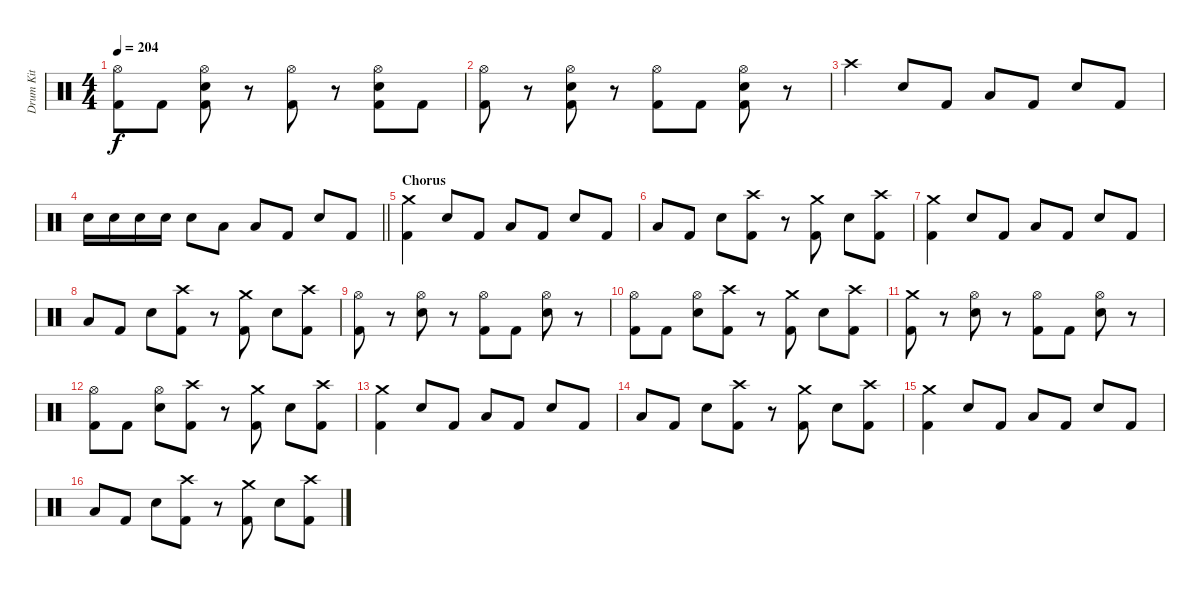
\track ("Drum Kit" "Drum Kit") {instrument percussion}
\staff {score}
\articulation defaults
\ts (4 4)
\tempo 204
\clef neutral
\ks c
("Hi-Hat (open)" "Kick (hit) 2").8{dy f} "Kick (hit) 2".8 ("Hi-Hat (open)" "Snare (hit) 2" "Kick (hit) 2").8 r.8 ("Hi-Hat (open)" "Kick (hit) 2").8 r.8 ("Hi-Hat (open)" "Snare (hit) 2" "Kick (hit) 2").8 "Kick (hit) 2".8 |
("Hi-Hat (open)" "Kick (hit) 2").8 r.8 ("Hi-Hat (open)" "Snare (hit) 2" "Kick (hit) 2").8 r.8 ("Hi-Hat (open)" "Kick (hit) 2").8 "Kick (hit) 2".8 ("Hi-Hat (open)" "Snare (hit) 2" "Kick (hit) 2").8 r.8 |
"Crash high (hit)".4 "Snare (hit) 2".8 "Kick (hit) 2".8 "Low Floor Tom (hit)".8 "Kick (hit) 2".8 "Snare (hit) 2".8 "Kick (hit) 2".8 |
\barLineRight lightlight "Snare (hit) 2".16 "Snare (hit) 2".16 "Snare (hit) 2".16 "Snare (hit) 2".16 "Snare (hit) 2".8 "Low Tom (hit)".8 "Low Floor Tom (hit)".8 "Kick (hit) 2".8 "Snare (hit) 2".8 "Kick (hit) 2".8
|
\section ("" "Chorus")
("Crash medium (hit)" "Kick (hit) 2").4 "Snare (hit) 2".8 "Kick (hit) 2".8 "Low Floor Tom (hit)".8 "Kick (hit) 2".8 "Snare (hit) 2".8 "Kick (hit) 2".8 |
"Low Floor Tom (hit)".8 "Kick (hit) 2".8 "Snare (hit) 2".8 ("Crash high (hit)" "Kick (hit) 2").8 r.8 ("Crash medium (hit)" "Kick (hit) 2").8 "Snare (hit) 2".8 ("Crash high (hit)" "Kick (hit) 2").8 |
("Crash medium (hit)" "Kick (hit) 2").4 "Snare (hit) 2".8 "Kick (hit) 2".8 "Low Floor Tom (hit)".8 "Kick (hit) 2".8 "Snare (hit) 2".8 "Kick (hit) 2".8 |
"Low Floor Tom (hit)".8 "Kick (hit) 2".8 "Snare (hit) 2".8 ("Crash high (hit)" "Kick (hit) 2").8 r.8 ("Crash medium (hit)" "Kick (hit) 2").8 "Snare (hit) 2".8 ("Crash high (hit)" "Kick (hit) 2").8 |
("Hi-Hat (open)" "Kick (hit) 2").8 r.8 ("Hi-Hat (open)" "Snare (hit) 2").8 r.8 ("Hi-Hat (open)" "Kick (hit) 2").8 "Kick (hit) 2".8 ("Hi-Hat (open)" "Snare (hit) 2").8 r.8 |
("Hi-Hat (open)" "Kick (hit) 2").8 "Kick (hit) 2".8 ("Hi-Hat (open)" "Snare (hit) 2").8 ("Crash high (hit)" "Kick (hit) 2").8 r.8 ("Crash medium (hit)" "Kick (hit) 2").8 "Snare (hit) 2".8 ("Crash high (hit)" "Kick (hit) 2").8 |
("Crash medium (hit)" "Kick (hit) 2").8 r.8 ("Hi-Hat (open)" "Snare (hit) 2").8 r.8 ("Hi-Hat (open)" "Kick (hit) 2").8 "Kick (hit) 2".8 ("Hi-Hat (open)" "Snare (hit) 2").8 r.8 |
("Hi-Hat (open)" "Kick (hit) 2").8 "Kick (hit) 2".8 ("Hi-Hat (open)" "Snare (hit) 2").8 ("Crash high (hit)" "Kick (hit) 2").8 r.8 ("Crash medium (hit)" "Kick (hit) 2").8 "Snare (hit) 2".8 ("Crash high (hit)" "Kick (hit) 2").8 |
("Crash medium (hit)" "Kick (hit) 2").4 "Snare (hit) 2".8 "Kick (hit) 2".8 "Low Floor Tom (hit)".8 "Kick (hit) 2".8 "Snare (hit) 2".8 "Kick (hit) 2".8 |
"Low Floor Tom (hit)".8 "Kick (hit) 2".8 "Snare (hit) 2".8 ("Crash high (hit)" "Kick (hit) 2").8 r.8 ("Crash medium (hit)" "Kick (hit) 2").8 "Snare (hit) 2".8 ("Crash high (hit)" "Kick (hit) 2").8 |
("Crash medium (hit)" "Kick (hit) 2").4 "Snare (hit) 2".8 "Kick (hit) 2".8 "Low Floor Tom (hit)".8 "Kick (hit) 2".8 "Snare (hit) 2".8 "Kick (hit) 2".8 |
"Low Floor Tom (hit)".8 "Kick (hit) 2".8 "Snare (hit) 2".8 ("Crash high (hit)" "Kick (hit) 2").8 r.8 ("Crash medium (hit)" "Kick (hit) 2").8 "Snare (hit) 2".8 ("Crash high (hit)" "Kick (hit) 2").8
